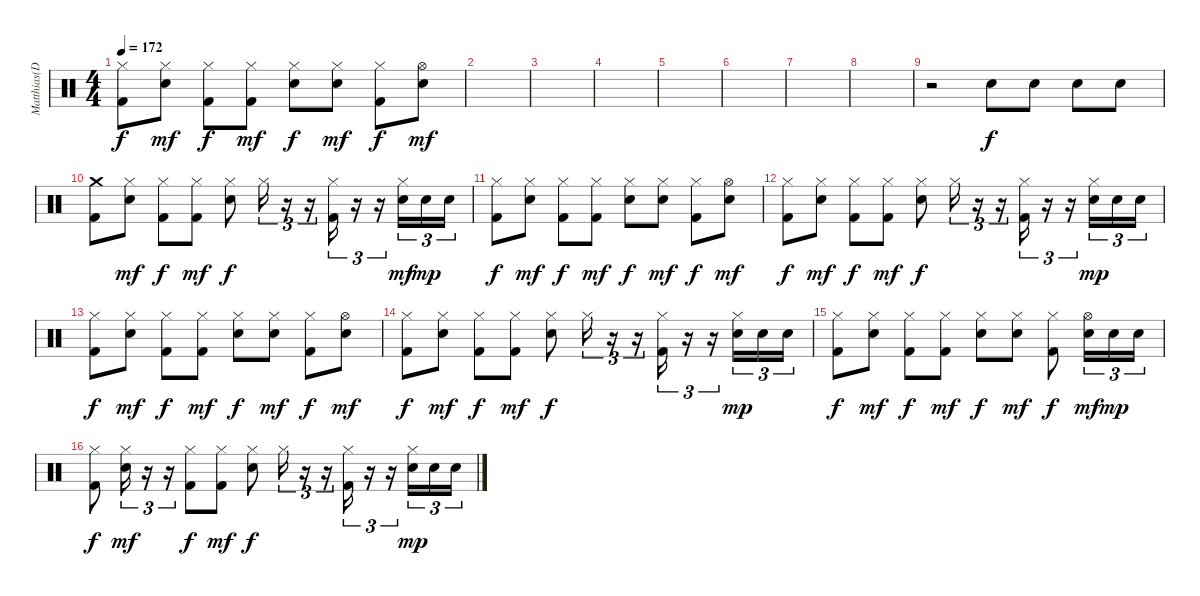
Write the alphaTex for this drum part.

\track ("Matthias(Drums)" "Matthias(D") {instrument percussion}
\staff {score}
\articulation defaults
\ts (4 4)
\tempo 172
\clef neutral
\ks c
("Hi-Hat (closed)" "Kick (hit) 2").8{dy f} ("Hi-Hat (closed)" "Snare (hit) 2").8{dy mf} ("Hi-Hat (closed)" "Kick (hit) 2").8{dy f} ("Hi-Hat (closed)" "Kick (hit) 2").8{dy mf} ("Hi-Hat (closed)" "Snare (hit) 2").8{dy f} ("Hi-Hat (closed)" "Snare (hit) 2").8{dy mf} ("Hi-Hat (closed)" "Kick (hit) 2").8{dy f} ("Hi-Hat (open)" "Snare (hit) 2").8{dy mf} |
|
|
|
|
|
|
|
r.2 "Snare (hit) 2".8{dy f} "Snare (hit) 2".8 "Snare (hit) 2".8 "Snare (hit) 2".8 |
("Crash medium (hit)" "Kick (hit) 2").8 ("Hi-Hat (closed)" "Snare (hit) 2").8{dy mf} ("Hi-Hat (closed)" "Kick (hit) 2").8{dy f} ("Hi-Hat (closed)" "Kick (hit) 2").8{dy mf} ("Hi-Hat (closed)" "Snare (hit) 2").8{dy f} "Hi-Hat (closed)".16{tu (3 2)} r.16{tu (3 2)} r.16{tu (3 2)} ("Hi-Hat (closed)" "Kick (hit) 2").16{tu (3 2)} r.16{tu (3 2)} r.16{tu (3 2)} ("Hi-Hat (closed)" "Snare (hit) 2").16{tu (3 2) dy mf} "Snare (hit) 2".16{tu (3 2) dy mp} "Snare (hit) 2".16{tu (3 2)} |
("Hi-Hat (closed)" "Kick (hit) 2").8{dy f} ("Hi-Hat (closed)" "Snare (hit) 2").8{dy mf} ("Hi-Hat (closed)" "Kick (hit) 2").8{dy f} ("Hi-Hat (closed)" "Kick (hit) 2").8{dy mf} ("Hi-Hat (closed)" "Snare (hit) 2").8{dy f} ("Hi-Hat (closed)" "Snare (hit) 2").8{dy mf} ("Hi-Hat (closed)" "Kick (hit) 2").8{dy f} ("Hi-Hat (open)" "Snare (hit) 2").8{dy mf} |
("Hi-Hat (closed)" "Kick (hit) 2").8{dy f} ("Hi-Hat (closed)" "Snare (hit) 2").8{dy mf} ("Hi-Hat (closed)" "Kick (hit) 2").8{dy f} ("Hi-Hat (closed)" "Kick (hit) 2").8{dy mf} ("Hi-Hat (closed)" "Snare (hit) 2").8{dy f} "Hi-Hat (closed)".16{tu (3 2)} r.16{tu (3 2)} r.16{tu (3 2)} ("Hi-Hat (closed)" "Kick (hit) 2").16{tu (3 2)} r.16{tu (3 2)} r.16{tu (3 2)} ("Hi-Hat (closed)" "Snare (hit) 2").16{tu (3 2) dy mp} "Snare (hit) 2".16{tu (3 2)} "Snare (hit) 2".16{tu (3 2)} |
("Hi-Hat (closed)" "Kick (hit) 2").8{dy f} ("Hi-Hat (closed)" "Snare (hit) 2").8{dy mf} ("Hi-Hat (closed)" "Kick (hit) 2").8{dy f} ("Hi-Hat (closed)" "Kick (hit) 2").8{dy mf} ("Hi-Hat (closed)" "Snare (hit) 2").8{dy f} ("Hi-Hat (closed)" "Snare (hit) 2").8{dy mf} ("Hi-Hat (closed)" "Kick (hit) 2").8{dy f} ("Hi-Hat (open)" "Snare (hit) 2").8{dy mf} |
("Hi-Hat (closed)" "Kick (hit) 2").8{dy f} ("Hi-Hat (closed)" "Snare (hit) 2").8{dy mf} ("Hi-Hat (closed)" "Kick (hit) 2").8{dy f} ("Hi-Hat (closed)" "Kick (hit) 2").8{dy mf} ("Hi-Hat (closed)" "Snare (hit) 2").8{dy f} "Hi-Hat (closed)".16{tu (3 2)} r.16{tu (3 2)} r.16{tu (3 2)} ("Hi-Hat (closed)" "Kick (hit) 2").16{tu (3 2)} r.16{tu (3 2)} r.16{tu (3 2)} ("Hi-Hat (closed)" "Snare (hit) 2").16{tu (3 2) dy mp} "Snare (hit) 2".16{tu (3 2)} "Snare (hit) 2".16{tu (3 2)} |
("Hi-Hat (closed)" "Kick (hit) 2").8{dy f} ("Hi-Hat (closed)" "Snare (hit) 2").8{dy mf} ("Hi-Hat (closed)" "Kick (hit) 2").8{dy f} ("Hi-Hat (closed)" "Kick (hit) 2").8{dy mf} ("Hi-Hat (closed)" "Snare (hit) 2").8{dy f} ("Hi-Hat (closed)" "Snare (hit) 2").8{dy mf} ("Hi-Hat (closed)" "Kick (hit) 2").8{dy f} ("Hi-Hat (open)" "Snare (hit) 2").16{tu (3 2) dy mf} "Snare (hit) 2".16{tu (3 2) dy mp} "Snare (hit) 2".16{tu (3 2)} |
("Hi-Hat (closed)" "Kick (hit) 2").8{dy f} ("Hi-Hat (closed)" "Snare (hit) 2").16{tu (3 2) dy mf} r.16{tu (3 2)} r.16{tu (3 2)} ("Hi-Hat (closed)" "Kick (hit) 2").8{dy f} ("Hi-Hat (closed)" "Kick (hit) 2").8{dy mf} ("Hi-Hat (closed)" "Snare (hit) 2").8{dy f} "Hi-Hat (closed)".16{tu (3 2)} r.16{tu (3 2)} r.16{tu (3 2)} ("Hi-Hat (closed)" "Kick (hit) 2").16{tu (3 2)} r.16{tu (3 2)} r.16{tu (3 2)} ("Hi-Hat (closed)" "Snare (hit) 2").16{tu (3 2) dy mp} "Snare (hit) 2".16{tu (3 2)} "Snare (hit) 2".16{tu (3 2)}
